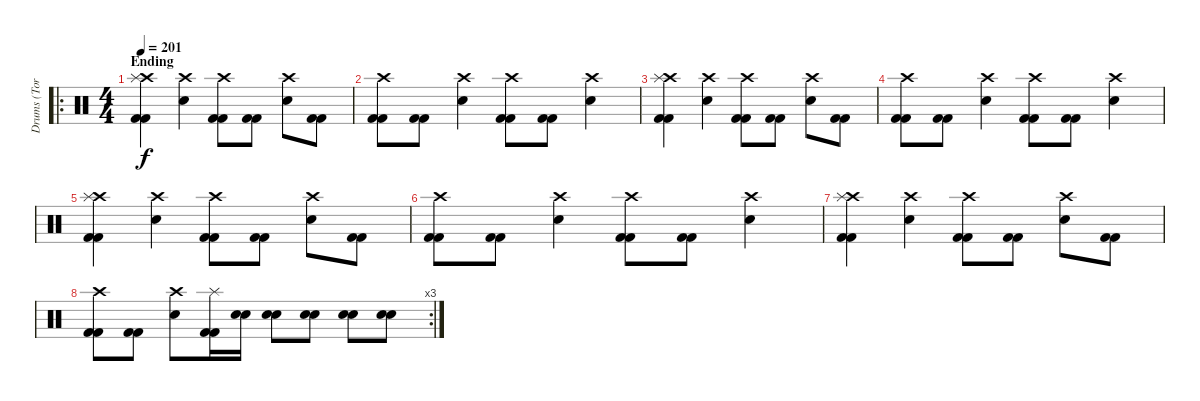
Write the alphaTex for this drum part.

\track ("Drums (Tora)" "Drums (Tor") {instrument percussion}
\staff {score}
\articulation defaults
\ro
\ts (4 4)
\section ("" "Ending")
\tempo 201
\clef neutral
\ks c
("Kick (hit) 2" "Crash high (hit)" "Splash (hit)" "Kick (hit) 2").4{dy f} ("Crash high (hit)" "Snare (hit) 2").4 ("Kick (hit) 2" "Crash high (hit)" "Kick (hit) 2").8 ("Kick (hit) 2" "Kick (hit) 2").8 ("Crash high (hit)" "Snare (hit) 2").8 ("Kick (hit) 2" "Kick (hit) 2").8 |
("Crash high (hit)" "Kick (hit) 2" "Kick (hit) 2").8 ("Kick (hit) 2" "Kick (hit) 2").8 ("Crash high (hit)" "Snare (hit) 2").4 ("Crash high (hit)" "Kick (hit) 2" "Kick (hit) 2").8 ("Kick (hit) 2" "Kick (hit) 2").8 ("Crash high (hit)" "Snare (hit) 2").4 |
("Kick (hit) 2" "Crash high (hit)" "Splash (hit)" "Kick (hit) 2").4 ("Crash high (hit)" "Snare (hit) 2").4 ("Kick (hit) 2" "Crash high (hit)" "Kick (hit) 2").8 ("Kick (hit) 2" "Kick (hit) 2").8 ("Crash high (hit)" "Snare (hit) 2").8 ("Kick (hit) 2" "Kick (hit) 2").8 |
("Crash high (hit)" "Kick (hit) 2" "Kick (hit) 2").8 ("Kick (hit) 2" "Kick (hit) 2").8 ("Crash high (hit)" "Snare (hit) 2").4 ("Crash high (hit)" "Kick (hit) 2" "Kick (hit) 2").8 ("Kick (hit) 2" "Kick (hit) 2").8 ("Crash high (hit)" "Snare (hit) 2").4 |
("Kick (hit) 2" "Crash high (hit)" "Splash (hit)" "Kick (hit) 2").4 ("Crash high (hit)" "Snare (hit) 2").4 ("Kick (hit) 2" "Crash high (hit)" "Kick (hit) 2").8 ("Kick (hit) 2" "Kick (hit) 2").8 ("Crash high (hit)" "Snare (hit) 2").8 ("Kick (hit) 2" "Kick (hit) 2").8 |
("Crash high (hit)" "Kick (hit) 2" "Kick (hit) 2").8 ("Kick (hit) 2" "Kick (hit) 2").8 ("Crash high (hit)" "Snare (hit) 2").4 ("Crash high (hit)" "Kick (hit) 2" "Kick (hit) 2").8 ("Kick (hit) 2" "Kick (hit) 2").8 ("Crash high (hit)" "Snare (hit) 2").4 |
("Kick (hit) 2" "Crash high (hit)" "Splash (hit)" "Kick (hit) 2").4 ("Crash high (hit)" "Snare (hit) 2").4 ("Kick (hit) 2" "Crash high (hit)" "Kick (hit) 2").8 ("Kick (hit) 2" "Kick (hit) 2").8 ("Crash high (hit)" "Snare (hit) 2").8 ("Kick (hit) 2" "Kick (hit) 2").8 |
\rc 3
("Crash high (hit)" "Kick (hit) 2" "Kick (hit) 2").8 ("Kick (hit) 2" "Kick (hit) 2").8 ("Crash high (hit)" "Snare (hit) 2").8 ("Splash (hit)" "Kick (hit) 2" "Kick (hit) 2").16 ("Snare (hit) 2" "Snare (hit) 2").16 ("Snare (hit) 2" "Snare (hit) 2").8 ("Snare (hit) 2" "Snare (hit) 2").8 ("Snare (hit) 2" "Snare (hit) 2").8 ("Snare (hit) 2" "Snare (hit) 2").8
